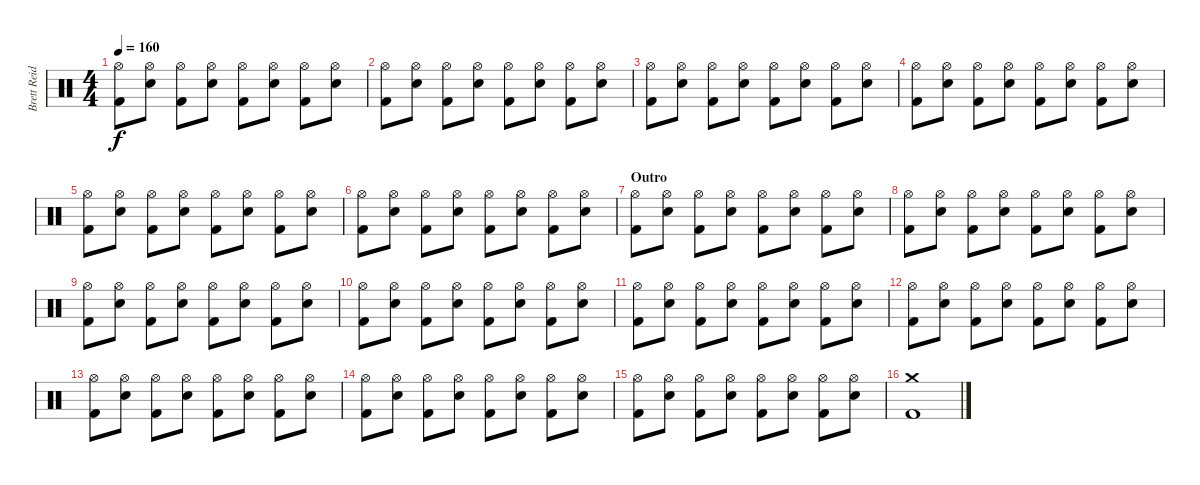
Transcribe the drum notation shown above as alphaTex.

\track ("Brett Reid" "Brett Reid") {instrument percussion}
\staff {score}
\articulation defaults
\ts (4 4)
\tempo 160
\clef neutral
\ks c
("Hi-Hat (open)" "Kick (hit) 2").8{dy f} ("Hi-Hat (open)" "Electric Snare (hit)").8 ("Hi-Hat (open)" "Kick (hit) 2").8 ("Hi-Hat (open)" "Electric Snare (hit)").8 ("Hi-Hat (open)" "Kick (hit) 2").8 ("Hi-Hat (open)" "Electric Snare (hit)").8 ("Hi-Hat (open)" "Kick (hit) 2").8 ("Hi-Hat (open)" "Electric Snare (hit)").8 |
("Hi-Hat (open)" "Kick (hit) 2").8 ("Hi-Hat (open)" "Electric Snare (hit)").8 ("Hi-Hat (open)" "Kick (hit) 2").8 ("Hi-Hat (open)" "Electric Snare (hit)").8 ("Hi-Hat (open)" "Kick (hit) 2").8 ("Hi-Hat (open)" "Electric Snare (hit)").8 ("Hi-Hat (open)" "Kick (hit) 2").8 ("Hi-Hat (open)" "Electric Snare (hit)").8 |
("Hi-Hat (open)" "Kick (hit) 2").8 ("Hi-Hat (open)" "Electric Snare (hit)").8 ("Hi-Hat (open)" "Kick (hit) 2").8 ("Hi-Hat (open)" "Electric Snare (hit)").8 ("Hi-Hat (open)" "Kick (hit) 2").8 ("Hi-Hat (open)" "Electric Snare (hit)").8 ("Hi-Hat (open)" "Kick (hit) 2").8 ("Hi-Hat (open)" "Electric Snare (hit)").8 |
("Hi-Hat (open)" "Kick (hit) 2").8 ("Hi-Hat (open)" "Electric Snare (hit)").8 ("Hi-Hat (open)" "Kick (hit) 2").8 ("Hi-Hat (open)" "Electric Snare (hit)").8 ("Hi-Hat (open)" "Kick (hit) 2").8 ("Hi-Hat (open)" "Electric Snare (hit)").8 ("Hi-Hat (open)" "Kick (hit) 2").8 ("Hi-Hat (open)" "Electric Snare (hit)").8 |
("Hi-Hat (open)" "Kick (hit) 2").8 ("Hi-Hat (open)" "Electric Snare (hit)").8 ("Hi-Hat (open)" "Kick (hit) 2").8 ("Hi-Hat (open)" "Electric Snare (hit)").8 ("Hi-Hat (open)" "Kick (hit) 2").8 ("Hi-Hat (open)" "Electric Snare (hit)").8 ("Hi-Hat (open)" "Kick (hit) 2").8 ("Hi-Hat (open)" "Electric Snare (hit)").8 |
("Hi-Hat (open)" "Kick (hit) 2").8 ("Hi-Hat (open)" "Electric Snare (hit)").8 ("Hi-Hat (open)" "Kick (hit) 2").8 ("Hi-Hat (open)" "Electric Snare (hit)").8 ("Hi-Hat (open)" "Kick (hit) 2").8 ("Hi-Hat (open)" "Electric Snare (hit)").8 ("Hi-Hat (open)" "Kick (hit) 2").8 ("Hi-Hat (open)" "Electric Snare (hit)").8 |
\section ("" "Outro")
("Hi-Hat (open)" "Kick (hit) 2").8 ("Hi-Hat (open)" "Electric Snare (hit)").8 ("Hi-Hat (open)" "Kick (hit) 2").8 ("Hi-Hat (open)" "Electric Snare (hit)").8 ("Hi-Hat (open)" "Kick (hit) 2").8 ("Hi-Hat (open)" "Electric Snare (hit)").8 ("Hi-Hat (open)" "Kick (hit) 2").8 ("Hi-Hat (open)" "Electric Snare (hit)").8 |
("Hi-Hat (open)" "Kick (hit) 2").8 ("Hi-Hat (open)" "Electric Snare (hit)").8 ("Hi-Hat (open)" "Kick (hit) 2").8 ("Hi-Hat (open)" "Electric Snare (hit)").8 ("Hi-Hat (open)" "Kick (hit) 2").8 ("Hi-Hat (open)" "Electric Snare (hit)").8 ("Hi-Hat (open)" "Kick (hit) 2").8 ("Hi-Hat (open)" "Electric Snare (hit)").8 |
("Hi-Hat (open)" "Kick (hit) 2").8 ("Hi-Hat (open)" "Electric Snare (hit)").8 ("Hi-Hat (open)" "Kick (hit) 2").8 ("Hi-Hat (open)" "Electric Snare (hit)").8 ("Hi-Hat (open)" "Kick (hit) 2").8 ("Hi-Hat (open)" "Electric Snare (hit)").8 ("Hi-Hat (open)" "Kick (hit) 2").8 ("Hi-Hat (open)" "Electric Snare (hit)").8 |
("Hi-Hat (open)" "Kick (hit) 2").8 ("Hi-Hat (open)" "Electric Snare (hit)").8 ("Hi-Hat (open)" "Kick (hit) 2").8 ("Hi-Hat (open)" "Electric Snare (hit)").8 ("Hi-Hat (open)" "Kick (hit) 2").8 ("Hi-Hat (open)" "Electric Snare (hit)").8 ("Hi-Hat (open)" "Kick (hit) 2").8 ("Hi-Hat (open)" "Electric Snare (hit)").8 |
("Hi-Hat (open)" "Kick (hit) 2").8 ("Hi-Hat (open)" "Electric Snare (hit)").8 ("Hi-Hat (open)" "Kick (hit) 2").8 ("Hi-Hat (open)" "Electric Snare (hit)").8 ("Hi-Hat (open)" "Kick (hit) 2").8 ("Hi-Hat (open)" "Electric Snare (hit)").8 ("Hi-Hat (open)" "Kick (hit) 2").8 ("Hi-Hat (open)" "Electric Snare (hit)").8 |
("Hi-Hat (open)" "Kick (hit) 2").8 ("Hi-Hat (open)" "Electric Snare (hit)").8 ("Hi-Hat (open)" "Kick (hit) 2").8 ("Hi-Hat (open)" "Electric Snare (hit)").8 ("Hi-Hat (open)" "Kick (hit) 2").8 ("Hi-Hat (open)" "Electric Snare (hit)").8 ("Hi-Hat (open)" "Kick (hit) 2").8 ("Hi-Hat (open)" "Electric Snare (hit)").8 |
("Hi-Hat (open)" "Kick (hit) 2").8 ("Hi-Hat (open)" "Electric Snare (hit)").8 ("Hi-Hat (open)" "Kick (hit) 2").8 ("Hi-Hat (open)" "Electric Snare (hit)").8 ("Hi-Hat (open)" "Kick (hit) 2").8 ("Hi-Hat (open)" "Electric Snare (hit)").8 ("Hi-Hat (open)" "Kick (hit) 2").8 ("Hi-Hat (open)" "Electric Snare (hit)").8 |
("Hi-Hat (open)" "Kick (hit) 2").8 ("Hi-Hat (open)" "Electric Snare (hit)").8 ("Hi-Hat (open)" "Kick (hit) 2").8 ("Hi-Hat (open)" "Electric Snare (hit)").8 ("Hi-Hat (open)" "Kick (hit) 2").8 ("Hi-Hat (open)" "Electric Snare (hit)").8 ("Hi-Hat (open)" "Kick (hit) 2").8 ("Hi-Hat (open)" "Electric Snare (hit)").8 |
("Hi-Hat (open)" "Kick (hit) 2").8 ("Hi-Hat (open)" "Electric Snare (hit)").8 ("Hi-Hat (open)" "Kick (hit) 2").8 ("Hi-Hat (open)" "Electric Snare (hit)").8 ("Hi-Hat (open)" "Kick (hit) 2").8 ("Hi-Hat (open)" "Electric Snare (hit)").8 ("Hi-Hat (open)" "Kick (hit) 2").8 ("Hi-Hat (open)" "Electric Snare (hit)").8 |
("Crash medium (hit)" "Kick (hit) 2").1
